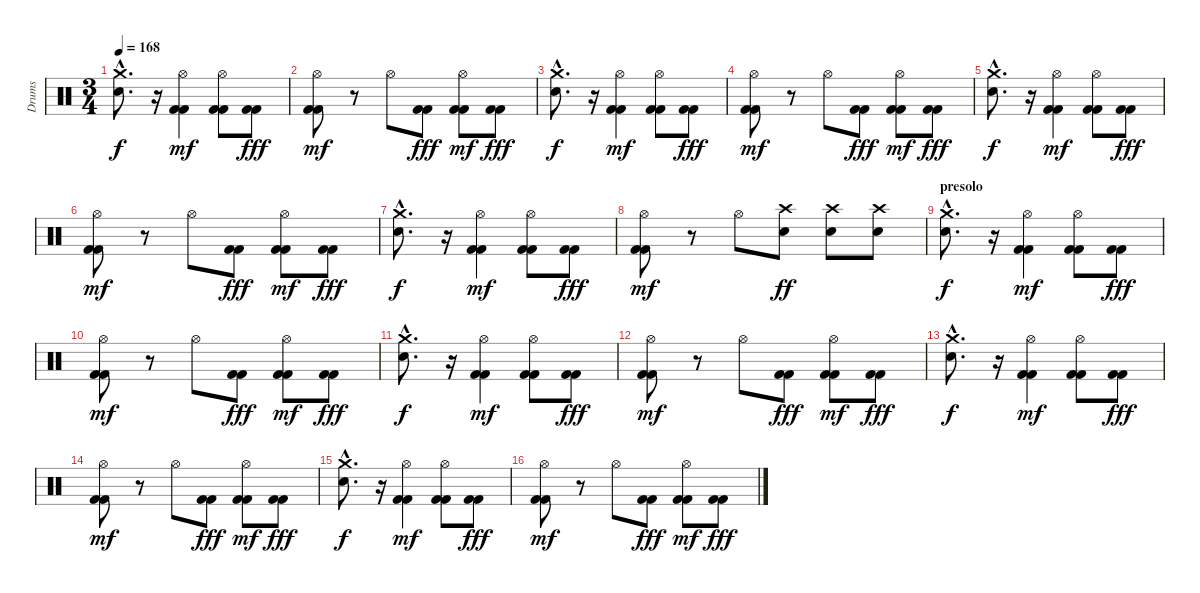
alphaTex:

\track ("Drums" "Drums") {instrument percussion}
\staff {score}
\articulation defaults
\ts (3 4)
\tempo 168
\clef neutral
\ks c
("Crash medium (hit)"{hac} "Electric Snare (hit)"{hac}).8{d dy f} r.16 ("Kick (hit) 2" "Kick (hit) 2" "Hi-Hat (open)").4{dy mf} ("Kick (hit) 2" "Kick (hit) 2" "Hi-Hat (open)").8 ("Kick (hit) 2" "Kick (hit) 2").8{dy fff} |
("Kick (hit) 2" "Kick (hit) 2" "Hi-Hat (open)").8{dy mf} r.8 "Hi-Hat (open)".8 ("Kick (hit) 2" "Kick (hit) 2").8{dy fff} ("Kick (hit) 2" "Kick (hit) 2" "Hi-Hat (open)").8{dy mf} ("Kick (hit) 2" "Kick (hit) 2").8{dy fff} |
("Crash medium (hit)"{hac} "Electric Snare (hit)"{hac}).8{d dy f} r.16 ("Kick (hit) 2" "Kick (hit) 2" "Hi-Hat (open)").4{dy mf} ("Kick (hit) 2" "Kick (hit) 2" "Hi-Hat (open)").8 ("Kick (hit) 2" "Kick (hit) 2").8{dy fff} |
("Kick (hit) 2" "Kick (hit) 2" "Hi-Hat (open)").8{dy mf} r.8 "Hi-Hat (open)".8 ("Kick (hit) 2" "Kick (hit) 2").8{dy fff} ("Kick (hit) 2" "Kick (hit) 2" "Hi-Hat (open)").8{dy mf} ("Kick (hit) 2" "Kick (hit) 2").8{dy fff} |
("Crash medium (hit)"{hac} "Electric Snare (hit)"{hac}).8{d dy f} r.16 ("Kick (hit) 2" "Kick (hit) 2" "Hi-Hat (open)").4{dy mf} ("Kick (hit) 2" "Kick (hit) 2" "Hi-Hat (open)").8 ("Kick (hit) 2" "Kick (hit) 2").8{dy fff} |
("Kick (hit) 2" "Kick (hit) 2" "Hi-Hat (open)").8{dy mf} r.8 "Hi-Hat (open)".8 ("Kick (hit) 2" "Kick (hit) 2").8{dy fff} ("Kick (hit) 2" "Kick (hit) 2" "Hi-Hat (open)").8{dy mf} ("Kick (hit) 2" "Kick (hit) 2").8{dy fff} |
("Crash medium (hit)"{hac} "Electric Snare (hit)"{hac}).8{d dy f} r.16 ("Kick (hit) 2" "Kick (hit) 2" "Hi-Hat (open)").4{dy mf} ("Kick (hit) 2" "Kick (hit) 2" "Hi-Hat (open)").8 ("Kick (hit) 2" "Kick (hit) 2").8{dy fff} |
("Kick (hit) 2" "Kick (hit) 2" "Hi-Hat (open)").8{dy mf} r.8 "Hi-Hat (open)".8 ("Crash high (hit)" "Electric Snare (hit)").8{dy ff} ("Crash high (hit)" "Electric Snare (hit)").8 ("Crash high (hit)" "Electric Snare (hit)").8 |
\section ("" "presolo")
("Crash medium (hit)"{hac} "Electric Snare (hit)"{hac}).8{d dy f} r.16 ("Kick (hit) 2" "Kick (hit) 2" "Hi-Hat (open)").4{dy mf} ("Kick (hit) 2" "Kick (hit) 2" "Hi-Hat (open)").8 ("Kick (hit) 2" "Kick (hit) 2").8{dy fff} |
("Kick (hit) 2" "Kick (hit) 2" "Hi-Hat (open)").8{dy mf} r.8 "Hi-Hat (open)".8 ("Kick (hit) 2" "Kick (hit) 2").8{dy fff} ("Kick (hit) 2" "Kick (hit) 2" "Hi-Hat (open)").8{dy mf} ("Kick (hit) 2" "Kick (hit) 2").8{dy fff} |
("Crash medium (hit)"{hac} "Electric Snare (hit)"{hac}).8{d dy f} r.16 ("Kick (hit) 2" "Kick (hit) 2" "Hi-Hat (open)").4{dy mf} ("Kick (hit) 2" "Kick (hit) 2" "Hi-Hat (open)").8 ("Kick (hit) 2" "Kick (hit) 2").8{dy fff} |
("Kick (hit) 2" "Kick (hit) 2" "Hi-Hat (open)").8{dy mf} r.8 "Hi-Hat (open)".8 ("Kick (hit) 2" "Kick (hit) 2").8{dy fff} ("Kick (hit) 2" "Kick (hit) 2" "Hi-Hat (open)").8{dy mf} ("Kick (hit) 2" "Kick (hit) 2").8{dy fff} |
("Crash medium (hit)"{hac} "Electric Snare (hit)"{hac}).8{d dy f} r.16 ("Kick (hit) 2" "Kick (hit) 2" "Hi-Hat (open)").4{dy mf} ("Kick (hit) 2" "Kick (hit) 2" "Hi-Hat (open)").8 ("Kick (hit) 2" "Kick (hit) 2").8{dy fff} |
("Kick (hit) 2" "Kick (hit) 2" "Hi-Hat (open)").8{dy mf} r.8 "Hi-Hat (open)".8 ("Kick (hit) 2" "Kick (hit) 2").8{dy fff} ("Kick (hit) 2" "Kick (hit) 2" "Hi-Hat (open)").8{dy mf} ("Kick (hit) 2" "Kick (hit) 2").8{dy fff} |
("Crash medium (hit)"{hac} "Electric Snare (hit)"{hac}).8{d dy f} r.16 ("Kick (hit) 2" "Kick (hit) 2" "Hi-Hat (open)").4{dy mf} ("Kick (hit) 2" "Kick (hit) 2" "Hi-Hat (open)").8 ("Kick (hit) 2" "Kick (hit) 2").8{dy fff} |
("Kick (hit) 2" "Kick (hit) 2" "Hi-Hat (open)").8{dy mf} r.8 "Hi-Hat (open)".8 ("Kick (hit) 2" "Kick (hit) 2").8{dy fff} ("Kick (hit) 2" "Kick (hit) 2" "Hi-Hat (open)").8{dy mf} ("Kick (hit) 2" "Kick (hit) 2").8{dy fff}
